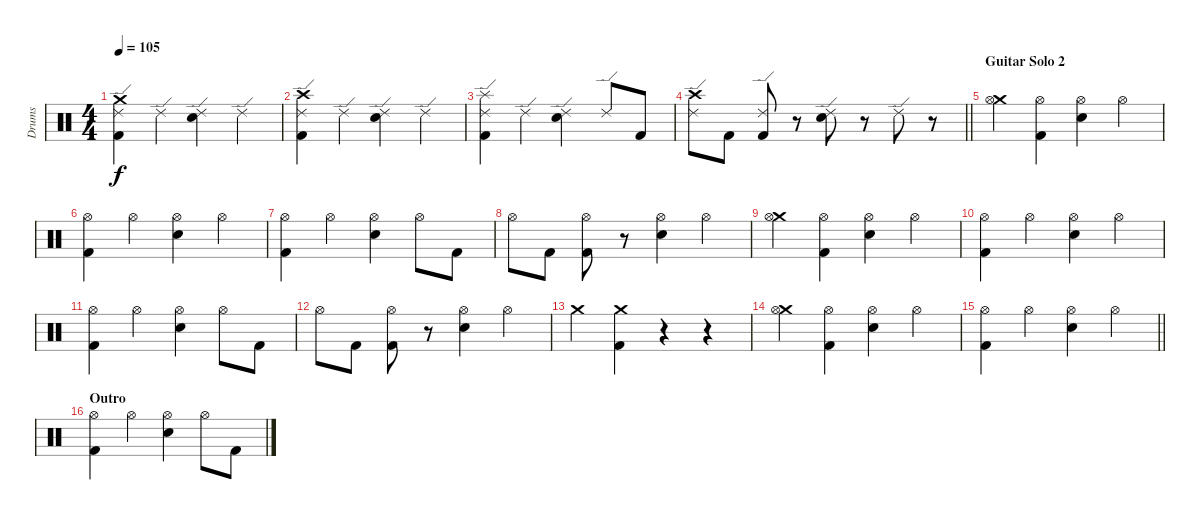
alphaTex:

\track ("Drums" "Drums") {instrument percussion}
\staff {score}
\articulation defaults
\ts (4 4)
\tempo 105
\clef neutral
\ks c
("Crash medium (hit)" "Ride (edge) 2" "Kick (hit) 2").4{dy f} "Ride (edge) 2".4 ("Ride (edge) 2" "Electric Snare (hit)").4 "Ride (edge) 2".4 |
("Crash high (hit)" "Ride (edge) 2" "Kick (hit) 2").4 "Ride (edge) 2".4 ("Ride (edge) 2" "Electric Snare (hit)").4 "Ride (edge) 2".4 |
("Splash (hit)" "Ride (edge) 2" "Kick (hit) 2").4 "Ride (edge) 2".4 ("Ride (edge) 2" "Electric Snare (hit)").4 "Ride (edge) 2".8 "Kick (hit) 2".8 |
\barLineRight lightlight
("Crash high (hit)" "Ride (edge) 2").8 "Kick (hit) 2".8 ("Ride (edge) 2" "Kick (hit) 2").8 r.8 ("Ride (edge) 2" "Electric Snare (hit)").8 r.8 "Ride (edge) 2".8 r.8 |
\section ("" "Guitar Solo 2")
("Crash medium (hit)" "Hi-Hat (open)").4 ("Hi-Hat (open)" "Kick (hit) 2").4 ("Hi-Hat (open)" "Electric Snare (hit)").4 "Hi-Hat (open)".4 |
("Hi-Hat (open)" "Kick (hit) 2").4 "Hi-Hat (open)".4 ("Hi-Hat (open)" "Electric Snare (hit)").4 "Hi-Hat (open)".4 |
("Hi-Hat (open)" "Kick (hit) 2").4 "Hi-Hat (open)".4 ("Hi-Hat (open)" "Electric Snare (hit)").4 "Hi-Hat (open)".8 "Kick (hit) 2".8 |
"Hi-Hat (open)".8 "Kick (hit) 2".8 ("Hi-Hat (open)" "Kick (hit) 2").8 r.8 ("Hi-Hat (open)" "Electric Snare (hit)").4 "Hi-Hat (open)".4 |
("Crash medium (hit)" "Hi-Hat (open)").4 ("Hi-Hat (open)" "Kick (hit) 2").4 ("Hi-Hat (open)" "Electric Snare (hit)").4 "Hi-Hat (open)".4 |
("Hi-Hat (open)" "Kick (hit) 2").4 "Hi-Hat (open)".4 ("Hi-Hat (open)" "Electric Snare (hit)").4 "Hi-Hat (open)".4 |
("Hi-Hat (open)" "Kick (hit) 2").4 "Hi-Hat (open)".4 ("Hi-Hat (open)" "Electric Snare (hit)").4 "Hi-Hat (open)".8 "Kick (hit) 2".8 |
"Hi-Hat (open)".8 "Kick (hit) 2".8 ("Hi-Hat (open)" "Kick (hit) 2").8 r.8 ("Hi-Hat (open)" "Electric Snare (hit)").4 "Hi-Hat (open)".4 |
"Crash medium (hit)".4 ("Crash medium (hit)" "Kick (hit) 2").4 r.4 r.4 |
("Crash medium (hit)" "Hi-Hat (open)").4 ("Hi-Hat (open)" "Kick (hit) 2").4 ("Hi-Hat (open)" "Electric Snare (hit)").4 "Hi-Hat (open)".4 |
\barLineRight lightlight
("Hi-Hat (open)" "Kick (hit) 2").4 "Hi-Hat (open)".4 ("Hi-Hat (open)" "Electric Snare (hit)").4 "Hi-Hat (open)".4 |
\section ("" "Outro")
("Hi-Hat (open)" "Kick (hit) 2").4 "Hi-Hat (open)".4 ("Hi-Hat (open)" "Electric Snare (hit)").4 "Hi-Hat (open)".8 "Kick (hit) 2".8
